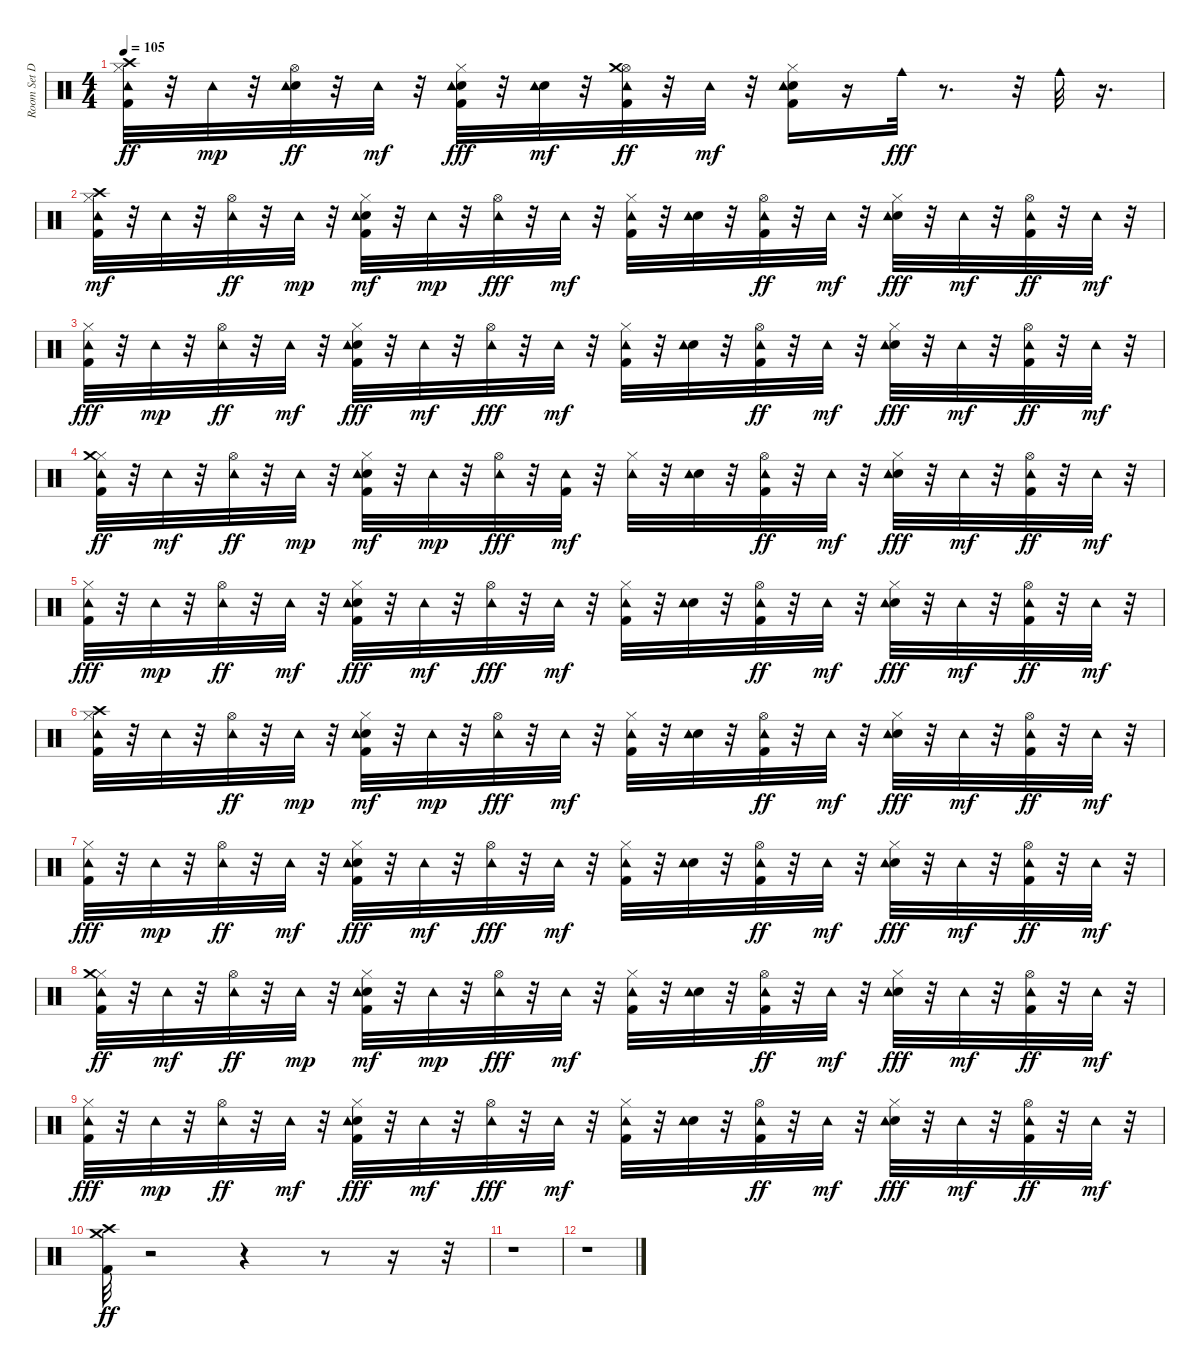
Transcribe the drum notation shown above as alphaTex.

\track ("Room Set Drums" "Room Set D") {instrument percussion}
\staff {score}
\articulation defaults
\ts (4 4)
\tempo 105
\clef neutral
\ks c
("Kick (hit) 2" "Hi-Hat (closed)" "Crash high (hit)" "Tambourine (hit)").32{dy ff} r.32 "Tambourine (hit)".32{dy mp} r.32 ("Electric Snare (hit)" "Hi-Hat (open)" "Tambourine (hit)").32{dy ff} r.32 "Tambourine (hit)".32{dy mf} r.32 ("Kick (hit) 2" "Electric Snare (hit)" "Hi-Hat (closed)" "Tambourine (hit)").32{dy fff} r.32 ("Electric Snare (hit)" "Tambourine (hit)").32{dy mf} r.32 ("Kick (hit) 2" "Hi-Hat (open)" "Tambourine (hit)" "Crash medium (hit)").32{dy ff} r.32 "Tambourine (hit)".32{dy mf} r.32 ("Kick (hit) 2" "Electric Snare (hit)" "Hi-Hat (closed)" "Tambourine (hit)").16 r.16 "Cowbell medium (hit)".32{dy fff} r.8{d} r.32 "Cowbell medium (hit)".32 r.16{d} |
("Kick (hit) 2" "Hi-Hat (closed)" "Crash high (hit)" "Tambourine (hit)").32{dy mf} r.32 "Tambourine (hit)".32 r.32 ("Hi-Hat (open)" "Tambourine (hit)").32{dy ff} r.32 "Tambourine (hit)".32{dy mp} r.32 ("Kick (hit) 2" "Electric Snare (hit)" "Hi-Hat (closed)" "Tambourine (hit)").32{dy mf} r.32 "Tambourine (hit)".32{dy mp} r.32 ("Hi-Hat (open)" "Tambourine (hit)").32{dy fff} r.32 "Tambourine (hit)".32{dy mf} r.32 ("Kick (hit) 2" "Hi-Hat (closed)" "Tambourine (hit)").32 r.32 ("Electric Snare (hit)" "Tambourine (hit)").32 r.32 ("Kick (hit) 2" "Hi-Hat (open)" "Tambourine (hit)").32{dy ff} r.32 "Tambourine (hit)".32{dy mf} r.32 ("Electric Snare (hit)" "Hi-Hat (closed)" "Tambourine (hit)").32{dy fff} r.32 "Tambourine (hit)".32{dy mf} r.32 ("Kick (hit) 2" "Hi-Hat (open)" "Tambourine (hit)").32{dy ff} r.32 "Tambourine (hit)".32{dy mf} r.32 |
("Kick (hit) 2" "Hi-Hat (closed)" "Tambourine (hit)").32{dy fff} r.32 "Tambourine (hit)".32{dy mp} r.32 ("Hi-Hat (open)" "Tambourine (hit)").32{dy ff} r.32 "Tambourine (hit)".32{dy mf} r.32 ("Kick (hit) 2" "Electric Snare (hit)" "Hi-Hat (closed)" "Tambourine (hit)").32{dy fff} r.32 "Tambourine (hit)".32{dy mf} r.32 ("Hi-Hat (open)" "Tambourine (hit)").32{dy fff} r.32 "Tambourine (hit)".32{dy mf} r.32 ("Kick (hit) 2" "Hi-Hat (closed)" "Tambourine (hit)").32 r.32 ("Electric Snare (hit)" "Tambourine (hit)").32 r.32 ("Kick (hit) 2" "Hi-Hat (open)" "Tambourine (hit)").32{dy ff} r.32 "Tambourine (hit)".32{dy mf} r.32 ("Electric Snare (hit)" "Hi-Hat (closed)" "Tambourine (hit)").32{dy fff} r.32 "Tambourine (hit)".32{dy mf} r.32 ("Kick (hit) 2" "Hi-Hat (open)" "Tambourine (hit)").32{dy ff} r.32 "Tambourine (hit)".32{dy mf} r.32 |
("Kick (hit) 2" "Hi-Hat (closed)" "Tambourine (hit)" "Crash medium (hit)").32{dy ff} r.32 "Tambourine (hit)".32{dy mf} r.32 ("Hi-Hat (open)" "Tambourine (hit)").32{dy ff} r.32 "Tambourine (hit)".32{dy mp} r.32 ("Kick (hit) 2" "Electric Snare (hit)" "Hi-Hat (closed)" "Tambourine (hit)").32{dy mf} r.32 "Tambourine (hit)".32{dy mp} r.32 ("Hi-Hat (open)" "Tambourine (hit)").32{dy fff} r.32 ("Kick (hit) 2" "Tambourine (hit)").32{dy mf} r.32 ("Hi-Hat (closed)" "Tambourine (hit)").32 r.32 ("Electric Snare (hit)" "Tambourine (hit)").32 r.32 ("Kick (hit) 2" "Hi-Hat (open)" "Tambourine (hit)").32{dy ff} r.32 "Tambourine (hit)".32{dy mf} r.32 ("Electric Snare (hit)" "Hi-Hat (closed)" "Tambourine (hit)").32{dy fff} r.32 "Tambourine (hit)".32{dy mf} r.32 ("Kick (hit) 2" "Hi-Hat (open)" "Tambourine (hit)").32{dy ff} r.32 "Tambourine (hit)".32{dy mf} r.32 |
("Kick (hit) 2" "Hi-Hat (closed)" "Tambourine (hit)").32{dy fff} r.32 "Tambourine (hit)".32{dy mp} r.32 ("Hi-Hat (open)" "Tambourine (hit)").32{dy ff} r.32 "Tambourine (hit)".32{dy mf} r.32 ("Kick (hit) 2" "Electric Snare (hit)" "Hi-Hat (closed)" "Tambourine (hit)").32{dy fff} r.32 "Tambourine (hit)".32{dy mf} r.32 ("Hi-Hat (open)" "Tambourine (hit)").32{dy fff} r.32 "Tambourine (hit)".32{dy mf} r.32 ("Kick (hit) 2" "Hi-Hat (closed)" "Tambourine (hit)").32 r.32 ("Electric Snare (hit)" "Tambourine (hit)").32 r.32 ("Kick (hit) 2" "Hi-Hat (open)" "Tambourine (hit)").32{dy ff} r.32 "Tambourine (hit)".32{dy mf} r.32 ("Electric Snare (hit)" "Hi-Hat (closed)" "Tambourine (hit)").32{dy fff} r.32 "Tambourine (hit)".32{dy mf} r.32 ("Kick (hit) 2" "Hi-Hat (open)" "Tambourine (hit)").32{dy ff} r.32 "Tambourine (hit)".32{dy mf} r.32 |
("Kick (hit) 2" "Hi-Hat (closed)" "Crash high (hit)" "Tambourine (hit)").32 r.32 "Tambourine (hit)".32 r.32 ("Hi-Hat (open)" "Tambourine (hit)").32{dy ff} r.32 "Tambourine (hit)".32{dy mp} r.32 ("Kick (hit) 2" "Electric Snare (hit)" "Hi-Hat (closed)" "Tambourine (hit)").32{dy mf} r.32 "Tambourine (hit)".32{dy mp} r.32 ("Hi-Hat (open)" "Tambourine (hit)").32{dy fff} r.32 "Tambourine (hit)".32{dy mf} r.32 ("Kick (hit) 2" "Hi-Hat (closed)" "Tambourine (hit)").32 r.32 ("Electric Snare (hit)" "Tambourine (hit)").32 r.32 ("Kick (hit) 2" "Hi-Hat (open)" "Tambourine (hit)").32{dy ff} r.32 "Tambourine (hit)".32{dy mf} r.32 ("Electric Snare (hit)" "Hi-Hat (closed)" "Tambourine (hit)").32{dy fff} r.32 "Tambourine (hit)".32{dy mf} r.32 ("Kick (hit) 2" "Hi-Hat (open)" "Tambourine (hit)").32{dy ff} r.32 "Tambourine (hit)".32{dy mf} r.32 |
("Kick (hit) 2" "Hi-Hat (closed)" "Tambourine (hit)").32{dy fff} r.32 "Tambourine (hit)".32{dy mp} r.32 ("Hi-Hat (open)" "Tambourine (hit)").32{dy ff} r.32 "Tambourine (hit)".32{dy mf} r.32 ("Kick (hit) 2" "Electric Snare (hit)" "Hi-Hat (closed)" "Tambourine (hit)").32{dy fff} r.32 "Tambourine (hit)".32{dy mf} r.32 ("Hi-Hat (open)" "Tambourine (hit)").32{dy fff} r.32 "Tambourine (hit)".32{dy mf} r.32 ("Kick (hit) 2" "Hi-Hat (closed)" "Tambourine (hit)").32 r.32 ("Electric Snare (hit)" "Tambourine (hit)").32 r.32 ("Kick (hit) 2" "Hi-Hat (open)" "Tambourine (hit)").32{dy ff} r.32 "Tambourine (hit)".32{dy mf} r.32 ("Electric Snare (hit)" "Hi-Hat (closed)" "Tambourine (hit)").32{dy fff} r.32 "Tambourine (hit)".32{dy mf} r.32 ("Kick (hit) 2" "Hi-Hat (open)" "Tambourine (hit)").32{dy ff} r.32 "Tambourine (hit)".32{dy mf} r.32 |
("Kick (hit) 2" "Hi-Hat (closed)" "Tambourine (hit)" "Crash medium (hit)").32{dy ff} r.32 "Tambourine (hit)".32{dy mf} r.32 ("Hi-Hat (open)" "Tambourine (hit)").32{dy ff} r.32 "Tambourine (hit)".32{dy mp} r.32 ("Kick (hit) 2" "Electric Snare (hit)" "Hi-Hat (closed)" "Tambourine (hit)").32{dy mf} r.32 "Tambourine (hit)".32{dy mp} r.32 ("Hi-Hat (open)" "Tambourine (hit)").32{dy fff} r.32 "Tambourine (hit)".32{dy mf} r.32 ("Kick (hit) 2" "Hi-Hat (closed)" "Tambourine (hit)").32 r.32 ("Electric Snare (hit)" "Tambourine (hit)").32 r.32 ("Kick (hit) 2" "Hi-Hat (open)" "Tambourine (hit)").32{dy ff} r.32 "Tambourine (hit)".32{dy mf} r.32 ("Electric Snare (hit)" "Hi-Hat (closed)" "Tambourine (hit)").32{dy fff} r.32 "Tambourine (hit)".32{dy mf} r.32 ("Kick (hit) 2" "Hi-Hat (open)" "Tambourine (hit)").32{dy ff} r.32 "Tambourine (hit)".32{dy mf} r.32 |
("Kick (hit) 2" "Hi-Hat (closed)" "Tambourine (hit)").32{dy fff} r.32 "Tambourine (hit)".32{dy mp} r.32 ("Hi-Hat (open)" "Tambourine (hit)").32{dy ff} r.32 "Tambourine (hit)".32{dy mf} r.32 ("Kick (hit) 2" "Electric Snare (hit)" "Hi-Hat (closed)" "Tambourine (hit)").32{dy fff} r.32 "Tambourine (hit)".32{dy mf} r.32 ("Hi-Hat (open)" "Tambourine (hit)").32{dy fff} r.32 "Tambourine (hit)".32{dy mf} r.32 ("Kick (hit) 2" "Hi-Hat (closed)" "Tambourine (hit)").32 r.32 ("Electric Snare (hit)" "Tambourine (hit)").32 r.32 ("Kick (hit) 2" "Hi-Hat (open)" "Tambourine (hit)").32{dy ff} r.32 "Tambourine (hit)".32{dy mf} r.32 ("Electric Snare (hit)" "Hi-Hat (closed)" "Tambourine (hit)").32{dy fff} r.32 "Tambourine (hit)".32{dy mf} r.32 ("Kick (hit) 2" "Hi-Hat (open)" "Tambourine (hit)").32{dy ff} r.32 "Tambourine (hit)".32{dy mf} r.32 |
("Kick (hit) 2" "Crash high (hit)" "Crash medium (hit)").32{dy ff} r.2 r.4 r.8 r.16 r.32 |
r.1 |
r.1
